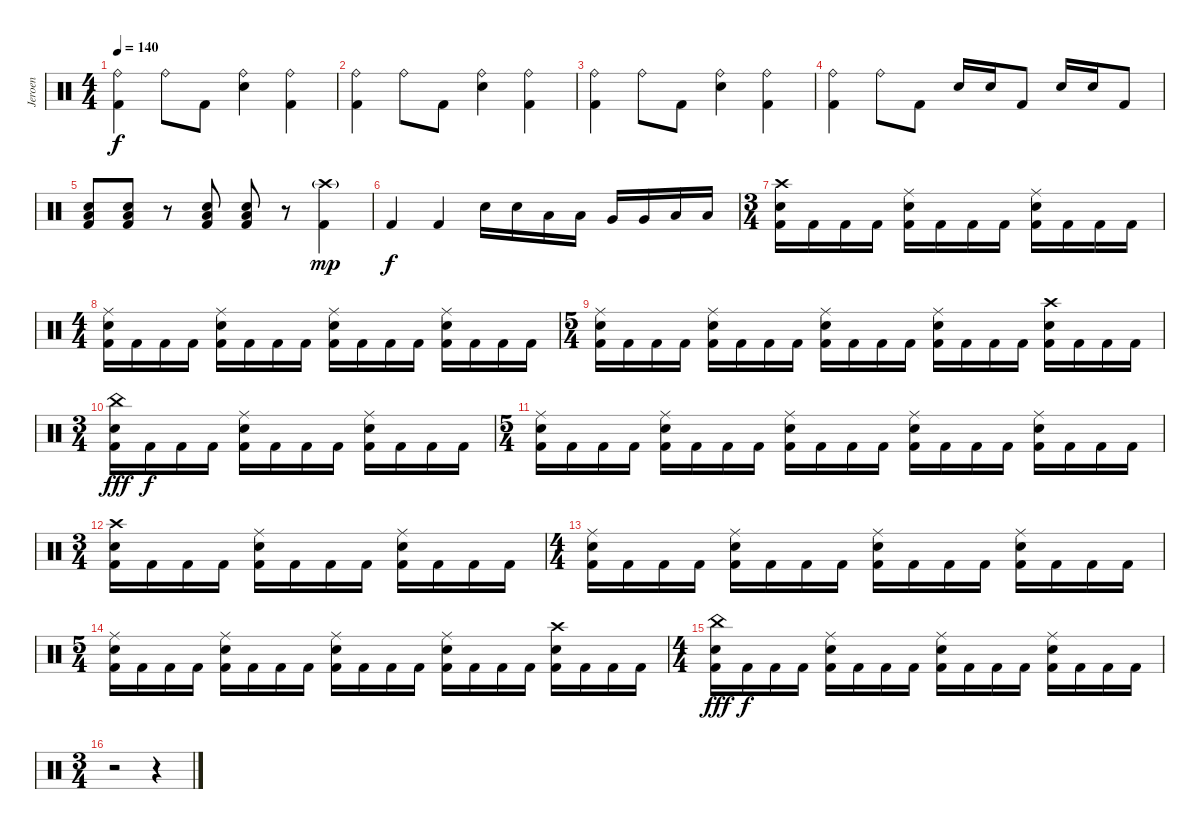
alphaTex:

\track ("Jeroen" "Jeroen") {instrument percussion}
\staff {score}
\articulation defaults
\ts (4 4)
\tempo 140
\clef neutral
\ks c
("Ride (bell)" "Kick (hit) 2").4{dy f} "Ride (bell)".8 "Kick (hit) 2".8 ("Ride (bell)" "Electric Snare (hit)").4 ("Ride (bell)" "Kick (hit) 2").4 |
("Ride (bell)" "Kick (hit) 2").4 "Ride (bell)".8 "Kick (hit) 2".8 ("Ride (bell)" "Electric Snare (hit)").4 ("Ride (bell)" "Kick (hit) 2").4 |
("Ride (bell)" "Kick (hit) 2").4 "Ride (bell)".8 "Kick (hit) 2".8 ("Ride (bell)" "Electric Snare (hit)").4 ("Ride (bell)" "Kick (hit) 2").4 |
("Ride (bell)" "Kick (hit) 2").4 "Ride (bell)".8 "Kick (hit) 2".8 "Electric Snare (hit)".16 "Electric Snare (hit)".16 "Kick (hit) 2".8 "Electric Snare (hit)".16 "Electric Snare (hit)".16 "Kick (hit) 2".8 |
("Low Tom (hit)" "Electric Snare (hit)" "Kick (hit) 2").8 ("Low Tom (hit)" "Electric Snare (hit)" "Kick (hit) 2").8 r.8 ("Low Tom (hit)" "Electric Snare (hit)" "Kick (hit) 2").8 ("Low Tom (hit)" "Electric Snare (hit)" "Kick (hit) 2").8 r.8 ("Crash high (hit)"{g} "Kick (hit) 2").4{dy mp} |
"Kick (hit) 2".4{dy f} "Kick (hit) 2".4 "Electric Snare (hit)".16 "Electric Snare (hit)".16 "Low Tom (hit)".16 "Low Tom (hit)".16 "Very Low Tom (hit)".16 "Very Low Tom (hit)".16 "Low Floor Tom (hit)".16 "Low Floor Tom (hit)".16 |
\ts (3 4)
("Crash high (hit)" "Electric Snare (hit)" "Kick (hit) 2").16 "Kick (hit) 2".16 "Kick (hit) 2".16 "Kick (hit) 2".16 ("Ride (middle)" "Electric Snare (hit)" "Kick (hit) 2").16 "Kick (hit) 2".16 "Kick (hit) 2".16 "Kick (hit) 2".16 ("Ride (middle)" "Electric Snare (hit)" "Kick (hit) 2").16 "Kick (hit) 2".16 "Kick (hit) 2".16 "Kick (hit) 2".16 |
\ts (4 4)
("Ride (middle)" "Electric Snare (hit)" "Kick (hit) 2").16 "Kick (hit) 2".16 "Kick (hit) 2".16 "Kick (hit) 2".16 ("Ride (middle)" "Electric Snare (hit)" "Kick (hit) 2").16 "Kick (hit) 2".16 "Kick (hit) 2".16 "Kick (hit) 2".16 ("Ride (middle)" "Electric Snare (hit)" "Kick (hit) 2").16 "Kick (hit) 2".16 "Kick (hit) 2".16 "Kick (hit) 2".16 ("Ride (middle)" "Electric Snare (hit)" "Kick (hit) 2").16 "Kick (hit) 2".16 "Kick (hit) 2".16 "Kick (hit) 2".16 |
\ts (5 4)
("Ride (middle)" "Electric Snare (hit)" "Kick (hit) 2").16 "Kick (hit) 2".16 "Kick (hit) 2".16 "Kick (hit) 2".16 ("Ride (middle)" "Electric Snare (hit)" "Kick (hit) 2").16 "Kick (hit) 2".16 "Kick (hit) 2".16 "Kick (hit) 2".16 ("Ride (middle)" "Electric Snare (hit)" "Kick (hit) 2").16 "Kick (hit) 2".16 "Kick (hit) 2".16 "Kick (hit) 2".16 ("Ride (middle)" "Electric Snare (hit)" "Kick (hit) 2").16 "Kick (hit) 2".16 "Kick (hit) 2".16 "Kick (hit) 2".16 ("Crash high (hit)" "Electric Snare (hit)" "Kick (hit) 2").16 "Kick (hit) 2".16 "Kick (hit) 2".16 "Kick (hit) 2".16 |
\ts (3 4)
("China (hit)" "Electric Snare (hit)" "Kick (hit) 2").16{dy fff} "Kick (hit) 2".16{dy f} "Kick (hit) 2".16 "Kick (hit) 2".16 ("Ride (middle)" "Electric Snare (hit)" "Kick (hit) 2").16 "Kick (hit) 2".16 "Kick (hit) 2".16 "Kick (hit) 2".16 ("Ride (middle)" "Electric Snare (hit)" "Kick (hit) 2").16 "Kick (hit) 2".16 "Kick (hit) 2".16 "Kick (hit) 2".16 |
\ts (5 4)
("Ride (middle)" "Electric Snare (hit)" "Kick (hit) 2").16 "Kick (hit) 2".16 "Kick (hit) 2".16 "Kick (hit) 2".16 ("Ride (middle)" "Electric Snare (hit)" "Kick (hit) 2").16 "Kick (hit) 2".16 "Kick (hit) 2".16 "Kick (hit) 2".16 ("Ride (middle)" "Electric Snare (hit)" "Kick (hit) 2").16 "Kick (hit) 2".16 "Kick (hit) 2".16 "Kick (hit) 2".16 ("Ride (middle)" "Electric Snare (hit)" "Kick (hit) 2").16 "Kick (hit) 2".16 "Kick (hit) 2".16 "Kick (hit) 2".16 ("Ride (middle)" "Electric Snare (hit)" "Kick (hit) 2").16 "Kick (hit) 2".16 "Kick (hit) 2".16 "Kick (hit) 2".16 |
\ts (3 4)
("Crash high (hit)" "Electric Snare (hit)" "Kick (hit) 2").16 "Kick (hit) 2".16 "Kick (hit) 2".16 "Kick (hit) 2".16 ("Ride (middle)" "Electric Snare (hit)" "Kick (hit) 2").16 "Kick (hit) 2".16 "Kick (hit) 2".16 "Kick (hit) 2".16 ("Ride (middle)" "Electric Snare (hit)" "Kick (hit) 2").16 "Kick (hit) 2".16 "Kick (hit) 2".16 "Kick (hit) 2".16 |
\ts (4 4)
("Ride (middle)" "Electric Snare (hit)" "Kick (hit) 2").16 "Kick (hit) 2".16 "Kick (hit) 2".16 "Kick (hit) 2".16 ("Ride (middle)" "Electric Snare (hit)" "Kick (hit) 2").16 "Kick (hit) 2".16 "Kick (hit) 2".16 "Kick (hit) 2".16 ("Ride (middle)" "Electric Snare (hit)" "Kick (hit) 2").16 "Kick (hit) 2".16 "Kick (hit) 2".16 "Kick (hit) 2".16 ("Ride (middle)" "Electric Snare (hit)" "Kick (hit) 2").16 "Kick (hit) 2".16 "Kick (hit) 2".16 "Kick (hit) 2".16 |
\ts (5 4)
("Ride (middle)" "Electric Snare (hit)" "Kick (hit) 2").16 "Kick (hit) 2".16 "Kick (hit) 2".16 "Kick (hit) 2".16 ("Ride (middle)" "Electric Snare (hit)" "Kick (hit) 2").16 "Kick (hit) 2".16 "Kick (hit) 2".16 "Kick (hit) 2".16 ("Ride (middle)" "Electric Snare (hit)" "Kick (hit) 2").16 "Kick (hit) 2".16 "Kick (hit) 2".16 "Kick (hit) 2".16 ("Ride (middle)" "Electric Snare (hit)" "Kick (hit) 2").16 "Kick (hit) 2".16 "Kick (hit) 2".16 "Kick (hit) 2".16 ("Crash high (hit)" "Electric Snare (hit)" "Kick (hit) 2").16 "Kick (hit) 2".16 "Kick (hit) 2".16 "Kick (hit) 2".16 |
\ts (4 4)
("China (hit)" "Electric Snare (hit)" "Kick (hit) 2").16{dy fff} "Kick (hit) 2".16{dy f} "Kick (hit) 2".16 "Kick (hit) 2".16 ("Ride (middle)" "Electric Snare (hit)" "Kick (hit) 2").16 "Kick (hit) 2".16 "Kick (hit) 2".16 "Kick (hit) 2".16 ("Ride (middle)" "Electric Snare (hit)" "Kick (hit) 2").16 "Kick (hit) 2".16 "Kick (hit) 2".16 "Kick (hit) 2".16 ("Ride (middle)" "Electric Snare (hit)" "Kick (hit) 2").16 "Kick (hit) 2".16 "Kick (hit) 2".16 "Kick (hit) 2".16 |
\ts (3 4)
r.2 r.4
